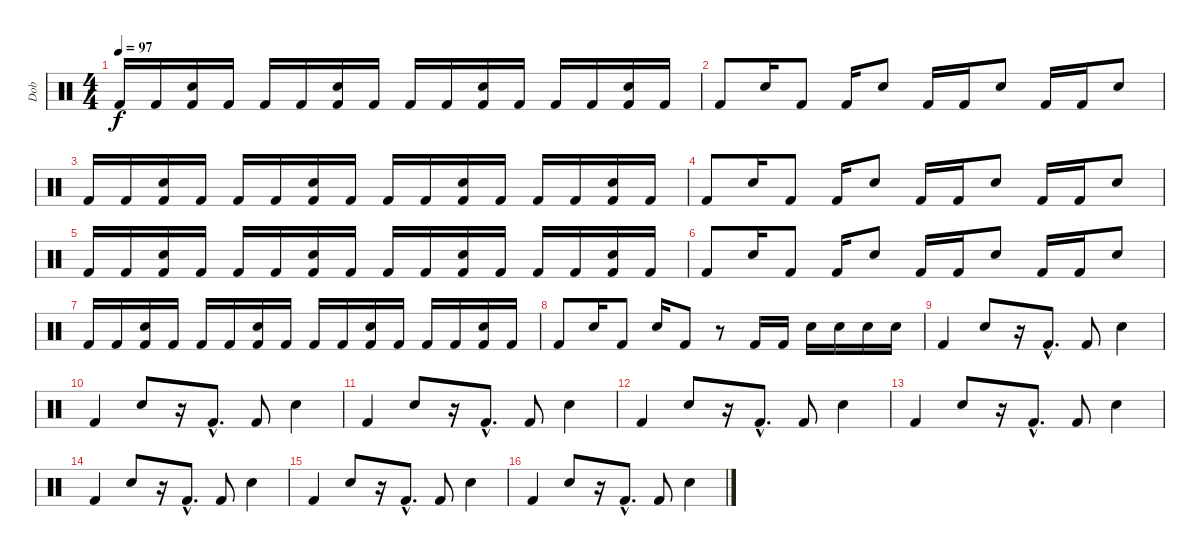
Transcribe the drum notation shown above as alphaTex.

\track ("Dob" "Dob") {instrument percussion}
\staff {score}
\articulation defaults
\ts (4 4)
\tempo 97
\clef neutral
\ks c "Kick (hit) 2".16{dy f} "Kick (hit) 2".16
("Snare (hit) 2" "Kick (hit) 2").16 "Kick (hit) 2".16 "Kick (hit) 2".16 "Kick (hit) 2".16 ("Snare (hit) 2" "Kick (hit) 2").16 "Kick (hit) 2".16 "Kick (hit) 2".16 "Kick (hit) 2".16 ("Snare (hit) 2" "Kick (hit) 2").16 "Kick (hit) 2".16 "Kick (hit) 2".16 "Kick (hit) 2".16 ("Snare (hit) 2" "Kick (hit) 2").16 "Kick (hit) 2".16 |
"Kick (hit) 2".8 "Snare (hit) 2".16 "Kick (hit) 2".8 "Kick (hit) 2".16 "Snare (hit) 2".8 "Kick (hit) 2".16 "Kick (hit) 2".16 "Snare (hit) 2".8 "Kick (hit) 2".16 "Kick (hit) 2".16 "Snare (hit) 2".8 |
"Kick (hit) 2".16 "Kick (hit) 2".16 ("Snare (hit) 2" "Kick (hit) 2").16 "Kick (hit) 2".16 "Kick (hit) 2".16 "Kick (hit) 2".16 ("Snare (hit) 2" "Kick (hit) 2").16 "Kick (hit) 2".16 "Kick (hit) 2".16 "Kick (hit) 2".16 ("Snare (hit) 2" "Kick (hit) 2").16 "Kick (hit) 2".16 "Kick (hit) 2".16 "Kick (hit) 2".16 ("Snare (hit) 2" "Kick (hit) 2").16 "Kick (hit) 2".16 |
"Kick (hit) 2".8 "Snare (hit) 2".16 "Kick (hit) 2".8 "Kick (hit) 2".16 "Snare (hit) 2".8 "Kick (hit) 2".16 "Kick (hit) 2".16 "Snare (hit) 2".8 "Kick (hit) 2".16 "Kick (hit) 2".16 "Snare (hit) 2".8 |
"Kick (hit) 2".16 "Kick (hit) 2".16 ("Snare (hit) 2" "Kick (hit) 2").16 "Kick (hit) 2".16 "Kick (hit) 2".16 "Kick (hit) 2".16 ("Snare (hit) 2" "Kick (hit) 2").16 "Kick (hit) 2".16 "Kick (hit) 2".16 "Kick (hit) 2".16 ("Snare (hit) 2" "Kick (hit) 2").16 "Kick (hit) 2".16 "Kick (hit) 2".16 "Kick (hit) 2".16 ("Snare (hit) 2" "Kick (hit) 2").16 "Kick (hit) 2".16 |
"Kick (hit) 2".8 "Snare (hit) 2".16 "Kick (hit) 2".8 "Kick (hit) 2".16 "Snare (hit) 2".8 "Kick (hit) 2".16 "Kick (hit) 2".16 "Snare (hit) 2".8 "Kick (hit) 2".16 "Kick (hit) 2".16 "Snare (hit) 2".8 |
"Kick (hit) 2".16 "Kick (hit) 2".16 ("Snare (hit) 2" "Kick (hit) 2").16 "Kick (hit) 2".16 "Kick (hit) 2".16 "Kick (hit) 2".16 ("Snare (hit) 2" "Kick (hit) 2").16 "Kick (hit) 2".16 "Kick (hit) 2".16 "Kick (hit) 2".16 ("Snare (hit) 2" "Kick (hit) 2").16 "Kick (hit) 2".16 "Kick (hit) 2".16 "Kick (hit) 2".16 ("Snare (hit) 2" "Kick (hit) 2").16 "Kick (hit) 2".16 |
"Kick (hit) 2".8 "Snare (hit) 2".16 "Kick (hit) 2".8 "Snare (hit) 2".16 "Kick (hit) 2".8 r.8 "Kick (hit) 2".16 "Kick (hit) 2".16 "Snare (hit) 2".16 "Snare (hit) 2".16 "Snare (hit) 2".16 "Snare (hit) 2".16 |
"Kick (hit) 2".4 "Snare (hit) 2".8 r.16 "Kick (hit) 2"{hac}.8{d} "Kick (hit) 2".8 "Snare (hit) 2".4 |
"Kick (hit) 2".4 "Snare (hit) 2".8 r.16 "Kick (hit) 2"{hac}.8{d} "Kick (hit) 2".8 "Snare (hit) 2".4 |
"Kick (hit) 2".4 "Snare (hit) 2".8 r.16 "Kick (hit) 2"{hac}.8{d} "Kick (hit) 2".8 "Snare (hit) 2".4 |
"Kick (hit) 2".4 "Snare (hit) 2".8 r.16 "Kick (hit) 2"{hac}.8{d} "Kick (hit) 2".8 "Snare (hit) 2".4 |
"Kick (hit) 2".4 "Snare (hit) 2".8 r.16 "Kick (hit) 2"{hac}.8{d} "Kick (hit) 2".8 "Snare (hit) 2".4 |
"Kick (hit) 2".4 "Snare (hit) 2".8 r.16 "Kick (hit) 2"{hac}.8{d} "Kick (hit) 2".8 "Snare (hit) 2".4 |
"Kick (hit) 2".4 "Snare (hit) 2".8 r.16 "Kick (hit) 2"{hac}.8{d} "Kick (hit) 2".8 "Snare (hit) 2".4 |
"Kick (hit) 2".4 "Snare (hit) 2".8 r.16 "Kick (hit) 2"{hac}.8{d} "Kick (hit) 2".8 "Snare (hit) 2".4
